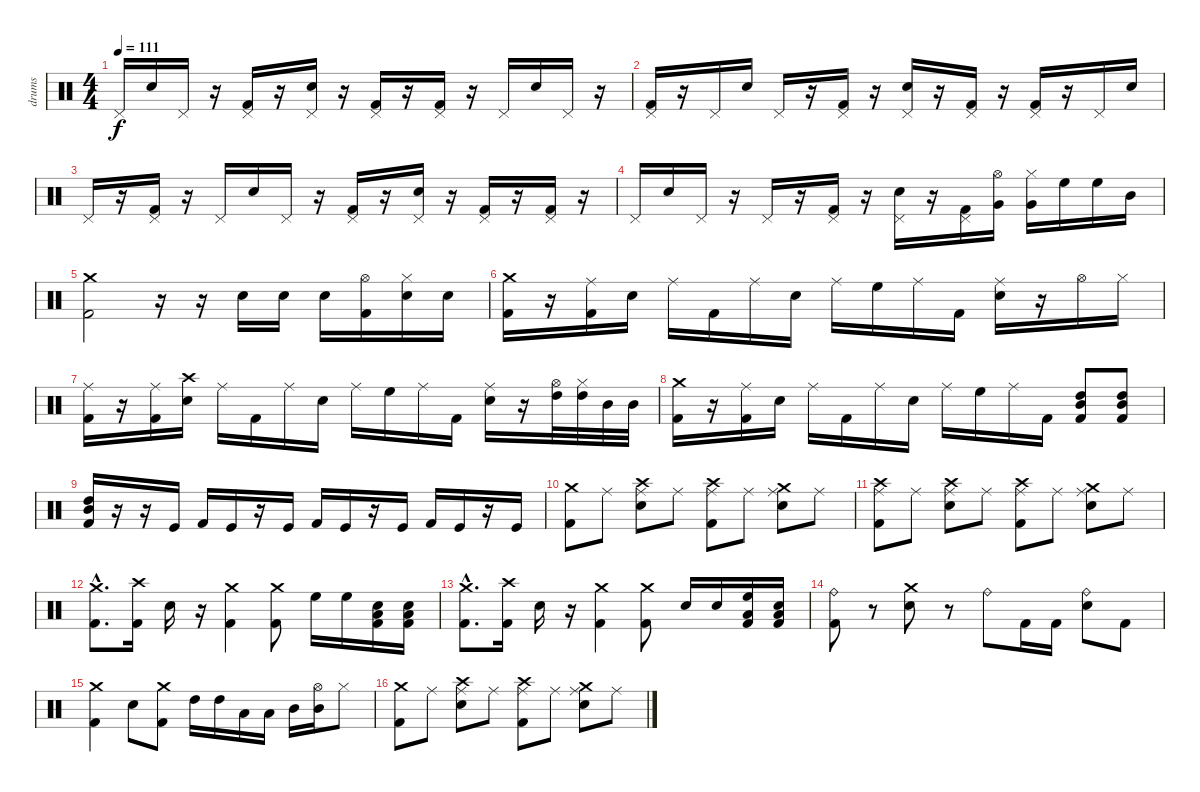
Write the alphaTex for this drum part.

\track ("drums" "drums") {instrument percussion}
\staff {score}
\articulation defaults
\ts (4 4)
\tempo 111
\clef neutral
\ks c "Pedal Hi-Hat (hit)".16{dy f} "Electric Snare (hit)".16 "Pedal Hi-Hat (hit)".16
r.16 ("Pedal Hi-Hat (hit)" "Kick (hit) 2").16 r.16 ("Pedal Hi-Hat (hit)" "Electric Snare (hit)").16 r.16 ("Pedal Hi-Hat (hit)" "Kick (hit) 2").16 r.16 ("Pedal Hi-Hat (hit)" "Kick (hit) 2").16 r.16 "Pedal Hi-Hat (hit)".16 "Electric Snare (hit)".16 "Pedal Hi-Hat (hit)".16 r.16 |
("Pedal Hi-Hat (hit)" "Kick (hit) 2").16 r.16 "Pedal Hi-Hat (hit)".16 "Electric Snare (hit)".16 "Pedal Hi-Hat (hit)".16 r.16 ("Pedal Hi-Hat (hit)" "Kick (hit) 2").16 r.16 ("Pedal Hi-Hat (hit)" "Electric Snare (hit)").16 r.16 ("Pedal Hi-Hat (hit)" "Kick (hit) 2").16 r.16 ("Pedal Hi-Hat (hit)" "Kick (hit) 2").16 r.16 "Pedal Hi-Hat (hit)".16 "Electric Snare (hit)".16 |
"Pedal Hi-Hat (hit)".16 r.16 ("Pedal Hi-Hat (hit)" "Kick (hit) 2").16 r.16 "Pedal Hi-Hat (hit)".16 "Electric Snare (hit)".16 "Pedal Hi-Hat (hit)".16 r.16 ("Pedal Hi-Hat (hit)" "Kick (hit) 2").16 r.16 ("Pedal Hi-Hat (hit)" "Electric Snare (hit)").16 r.16 ("Pedal Hi-Hat (hit)" "Kick (hit) 2").16 r.16 ("Pedal Hi-Hat (hit)" "Kick (hit) 2").16 r.16 |
"Pedal Hi-Hat (hit)".16 "Electric Snare (hit)".16 "Pedal Hi-Hat (hit)".16 r.16 "Pedal Hi-Hat (hit)".16 r.16 ("Pedal Hi-Hat (hit)" "Kick (hit) 2").16 r.16 ("Pedal Hi-Hat (hit)" "Electric Snare (hit)").16 r.16 ("Pedal Hi-Hat (hit)" "Kick (hit) 2").16 ("Hi-Hat (open)" "Very Low Tom (hit)").16 ("Hi-Hat (closed)" "Very Low Tom (hit)").16 "High Floor Tom (hit)".16 "High Floor Tom (hit)".16 "Mid Tom (hit)".16 |
("Crash medium (hit)" "Kick (hit) 2").2 r.16 r.16 "Electric Snare (hit)".16 "Electric Snare (hit)".16 "Electric Snare (hit)".16 ("Hi-Hat (open)" "Kick (hit) 2").16 ("Hi-Hat (closed)" "Electric Snare (hit)").16 "Electric Snare (hit)".16 |
("Crash medium (hit)" "Kick (hit) 2").16 r.16 ("Ride (middle)" "Kick (hit) 2").16 "Electric Snare (hit)".16 "Ride (middle)".16 "Kick (hit) 2".16 "Ride (middle)".16 "Electric Snare (hit)".16 "Ride (middle)".16 "High Floor Tom (hit)".16 "Ride (middle)".16 "Kick (hit) 2".16 ("Ride (middle)" "Electric Snare (hit)").16 r.16 "Hi-Hat (open)".16 "Hi-Hat (closed)".16 |
("Ride (middle)" "Kick (hit) 2").16 r.16 ("Ride (middle)" "Kick (hit) 2").16 ("Crash high (hit)" "Electric Snare (hit)").16 "Ride (middle)".16 "Kick (hit) 2".16 "Ride (middle)".16 "Electric Snare (hit)".16 "Ride (middle)".16 "High Floor Tom (hit)".16 "Ride (middle)".16 "Kick (hit) 2".16 ("Ride (middle)" "Electric Snare (hit)").16 r.16 ("Hi-Hat (open)" "High Tom (hit)").32 ("Hi-Hat (closed)" "High Tom (hit)").32 "Mid Tom (hit)".32 "Mid Tom (hit)".32 |
("Crash medium (hit)" "Kick (hit) 2").16 r.16 ("Ride (middle)" "Kick (hit) 2").16 "Electric Snare (hit)".16 "Ride (middle)".16 "Kick (hit) 2".16 "Ride (middle)".16 "Electric Snare (hit)".16 "Ride (middle)".16 "High Floor Tom (hit)".16 "Ride (middle)".16 "Kick (hit) 2".16 ("High Tom (hit)" "Mid Tom (hit)" "Kick (hit) 2").8 ("High Tom (hit)" "Mid Tom (hit)" "Kick (hit) 2").8 |
("High Tom (hit)" "Mid Tom (hit)" "Kick (hit) 2").16 r.16 r.16 "Kick (hit)".16 "Kick (hit) 2".16 "Kick (hit)".16 r.16 "Kick (hit)".16 "Kick (hit) 2".16 "Kick (hit)".16 r.16 "Kick (hit)".16 "Kick (hit) 2".16 "Kick (hit)".16 r.16 "Kick (hit)".16 |
("Crash medium (hit)" "Kick (hit) 2").8 "Ride (middle)".8 ("Crash high (hit)" "Ride (middle)" "Electric Snare (hit)").8 "Ride (middle)".8 ("Crash high (hit)" "Ride (middle)" "Kick (hit) 2").8 "Ride (middle)".8 ("Crash medium (hit)" "Ride (middle)" "Electric Snare (hit)").8 "Ride (middle)".8 |
("Crash high (hit)" "Ride (middle)" "Kick (hit) 2").8 "Ride (middle)".8 ("Crash high (hit)" "Ride (middle)" "Electric Snare (hit)").8 "Ride (middle)".8 ("Crash high (hit)" "Ride (middle)" "Kick (hit) 2").8 "Ride (middle)".8 ("Crash medium (hit)" "Ride (middle)" "Electric Snare (hit)").8 "Ride (middle)".8 |
("Crash medium (hit)"{hac} "Kick (hit) 2"{hac}).8{d} ("Crash high (hit)" "Kick (hit) 2").16 "Electric Snare (hit)".16 r.16 ("Crash medium (hit)" "Kick (hit) 2").4 ("Crash medium (hit)" "Kick (hit) 2").8 "High Floor Tom (hit)".16 "High Floor Tom (hit)".16 ("Low Tom (hit)" "Electric Snare (hit)" "Kick (hit) 2").16 ("Low Tom (hit)" "Electric Snare (hit)" "Kick (hit) 2").16 |
("Crash medium (hit)"{hac} "Kick (hit) 2"{hac}).8{d} ("Crash high (hit)" "Kick (hit) 2").16 "Electric Snare (hit)".16 r.16 ("Crash medium (hit)" "Kick (hit) 2").4 ("Crash medium (hit)" "Kick (hit) 2").8 "Electric Snare (hit)".16 "Electric Snare (hit)".16 ("Low Tom (hit)" "High Floor Tom (hit)" "Kick (hit) 2").16 ("Low Tom (hit)" "Electric Snare (hit)" "Kick (hit) 2").16 |
("Ride (bell)" "Kick (hit) 2").8 r.8 ("Crash medium (hit)" "Electric Snare (hit)").8 r.8 "Ride (bell)".8 "Kick (hit) 2".16 "Kick (hit) 2".16 ("Ride (bell)" "Electric Snare (hit)").8 "Kick (hit) 2".8 |
("Crash medium (hit)" "Kick (hit) 2").4 "Electric Snare (hit)".8 ("Crash medium (hit)" "Kick (hit) 2").8 "High Tom (hit)".16 "High Tom (hit)".16 "Low Tom (hit)".16 "Low Tom (hit)".16 "Mid Tom (hit)".16 ("Hi-Hat (open)" "Mid Tom (hit)").16 "Hi-Hat (closed)".8 |
("Crash medium (hit)" "Kick (hit) 2").8 "Ride (middle)".8 ("Crash high (hit)" "Ride (middle)" "Electric Snare (hit)").8 "Ride (middle)".8 ("Crash high (hit)" "Ride (middle)" "Kick (hit) 2").8 "Ride (middle)".8 ("Crash medium (hit)" "Ride (middle)" "Electric Snare (hit)").8 "Ride (middle)".8
